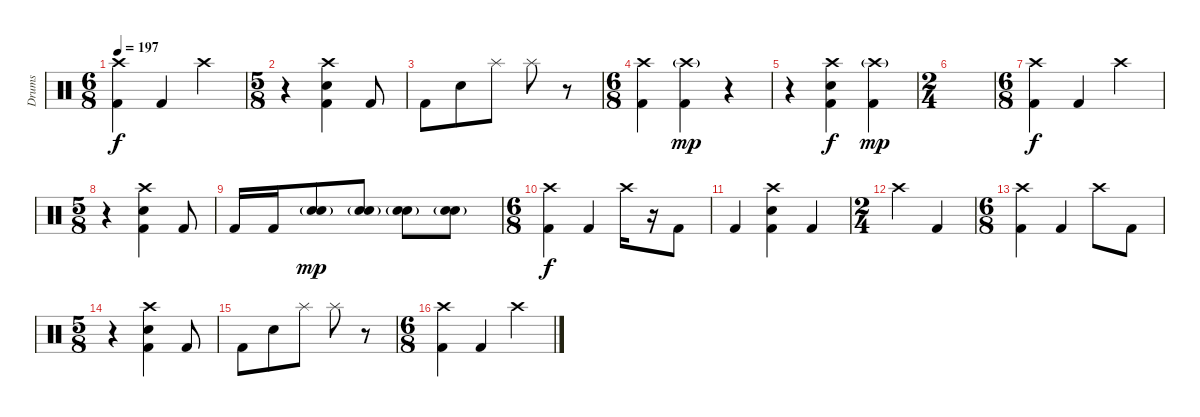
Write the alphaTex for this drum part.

\track ("Drums" "Drums") {instrument percussion}
\staff {score}
\articulation defaults
\ts (6 8)
\tempo 197
\clef neutral
\ks c
("Crash high (hit)" "Kick (hit) 2").4{dy f} "Kick (hit) 2".4 "Crash high (hit)".4 |
\ts (5 8)
r.4 ("Crash high (hit)" "Electric Snare (hit)" "Kick (hit) 2").4 "Kick (hit) 2".8 |
"Kick (hit) 2".8 "Electric Snare (hit)".8 "Splash (hit)".8 "Splash (hit)".8 r.8 |
\ts (6 8)
("Crash high (hit)" "Kick (hit) 2").4 ("Crash high (hit)"{g} "Kick (hit) 2").4{dy mp} r.4 |
r.4 ("Crash high (hit)" "Electric Snare (hit)" "Kick (hit) 2").4{dy f} ("Crash high (hit)"{g} "Kick (hit) 2").4{dy mp} |
\ts (2 4)
|
\ts (6 8)
("Crash high (hit)" "Kick (hit) 2").4{dy f} "Kick (hit) 2".4 "Crash high (hit)".4 |
\ts (5 8)
r.4 ("Crash high (hit)" "Electric Snare (hit)" "Kick (hit) 2").4 "Kick (hit) 2".8 |
"Kick (hit) 2".16 "Kick (hit) 2".16 ("Snare (hit) 2"{g} "Electric Snare (hit)").8{dy mp} ("Snare (hit) 2"{g} "Electric Snare (hit)").8 ("Snare (hit) 2"{g} "Electric Snare (hit)").8 ("Snare (hit) 2"{g} "Electric Snare (hit)").8 |
\ts (6 8)
("Crash high (hit)" "Kick (hit) 2").4{dy f} "Kick (hit) 2".4 "Crash high (hit)".16 r.16 "Kick (hit) 2".8 |
"Kick (hit) 2".4 ("Crash high (hit)" "Electric Snare (hit)" "Kick (hit) 2").4 "Kick (hit) 2".4 |
\ts (2 4)
"Crash high (hit)".4 "Kick (hit) 2".4 |
\ts (6 8)
("Crash high (hit)" "Kick (hit) 2").4 "Kick (hit) 2".4 "Crash high (hit)".8 "Kick (hit) 2".8 |
\ts (5 8)
r.4 ("Crash high (hit)" "Electric Snare (hit)" "Kick (hit) 2").4 "Kick (hit) 2".8 |
"Kick (hit) 2".8 "Electric Snare (hit)".8 "Splash (hit)".8 "Splash (hit)".8 r.8 |
\ts (6 8)
("Crash high (hit)" "Kick (hit) 2").4 "Kick (hit) 2".4 "Crash high (hit)".4
